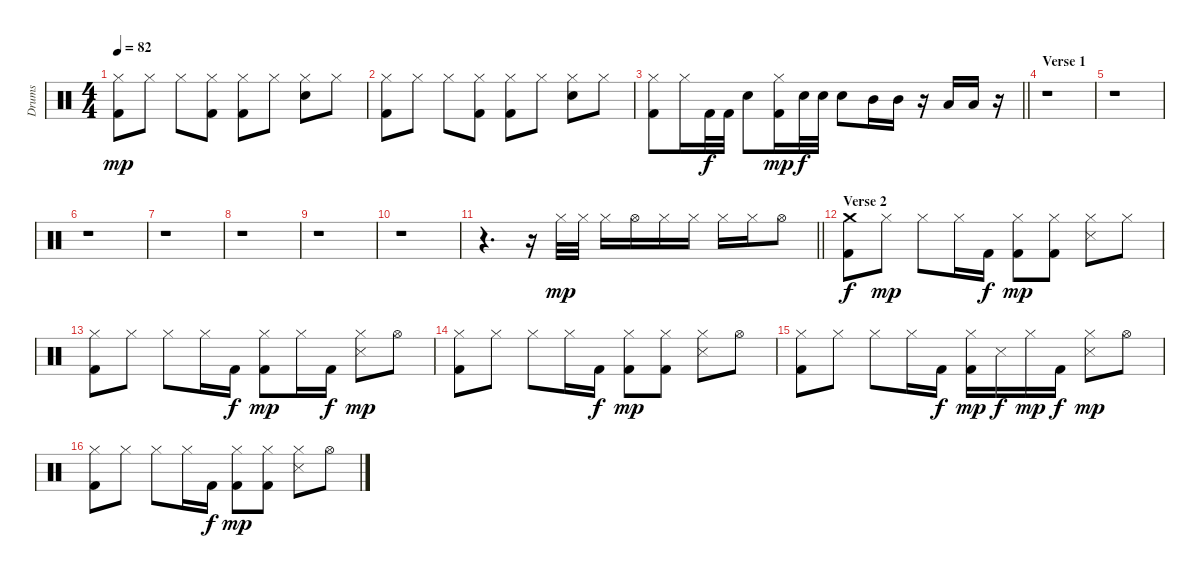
\track ("Drums" "Drums") {instrument percussion}
\staff {score}
\articulation defaults
\ts (4 4)
\tempo 82
\clef neutral
\ks c
("Hi-Hat (closed)" "Kick (hit) 2").8{dy mp} "Hi-Hat (closed)".8 "Hi-Hat (closed)".8 ("Hi-Hat (closed)" "Kick (hit) 2").8 ("Hi-Hat (closed)" "Kick (hit) 2").8 "Hi-Hat (closed)".8 ("Hi-Hat (closed)" "Snare (hit) 2").8 "Hi-Hat (closed)".8 |
("Hi-Hat (closed)" "Kick (hit) 2").8 "Hi-Hat (closed)".8 "Hi-Hat (closed)".8 ("Hi-Hat (closed)" "Kick (hit) 2").8 ("Hi-Hat (closed)" "Kick (hit) 2").8 "Hi-Hat (closed)".8 ("Hi-Hat (closed)" "Snare (hit) 2").8 "Hi-Hat (closed)".8 |
\barLineRight lightlight
("Hi-Hat (closed)" "Kick (hit) 2").8 "Hi-Hat (closed)".16 "Kick (hit) 2".32{dy f} "Kick (hit) 2".32 "Snare (hit) 2".8 ("Hi-Hat (closed)" "Kick (hit) 2").16{dy mp} "Snare (hit) 2".32{dy f} "Snare (hit) 2".32 "Snare (hit) 2".8 "Mid Tom (hit)".16 "Mid Tom (hit)".16 r.16 "Low Tom (hit)".16 "Low Tom (hit)".16 r.16 |
\section ("" "Verse 1")
r.1 |
r.1 |
r.1 |
r.1 |
r.1 |
r.1 |
r.1 |
\barLineRight lightlight
r.4{d} r.16 "Hi-Hat (closed)".32{dy mp} "Hi-Hat (closed)".32 "Hi-Hat (closed)".16 "Hi-Hat (open)".16 "Hi-Hat (closed)".16 "Hi-Hat (closed)".16 "Hi-Hat (closed)".16 "Hi-Hat (closed)".16 "Hi-Hat (open)".8 |
\section ("" "Verse 2")
("Crash medium (hit)" "Kick (hit) 2").8{dy f} "Hi-Hat (closed)".8{dy mp} "Hi-Hat (closed)".8 "Hi-Hat (closed)".16 "Kick (hit) 2".16{dy f} ("Hi-Hat (closed)" "Kick (hit) 2").8{dy mp} ("Hi-Hat (closed)" "Kick (hit) 2").8 ("Hi-Hat (closed)" "Snare (side stick) 3").8 "Hi-Hat (closed)".8 |
("Hi-Hat (closed)" "Kick (hit) 2").8 "Hi-Hat (closed)".8 "Hi-Hat (closed)".8 "Hi-Hat (closed)".16 "Kick (hit) 2".16{dy f} ("Hi-Hat (closed)" "Kick (hit) 2").8{dy mp} "Hi-Hat (closed)".16 "Kick (hit) 2".16{dy f} ("Hi-Hat (closed)" "Snare (side stick) 3").8{dy mp} "Hi-Hat (open)".8 |
("Hi-Hat (closed)" "Kick (hit) 2").8 "Hi-Hat (closed)".8 "Hi-Hat (closed)".8 "Hi-Hat (closed)".16 "Kick (hit) 2".16{dy f} ("Hi-Hat (closed)" "Kick (hit) 2").8{dy mp} ("Hi-Hat (closed)" "Kick (hit) 2").8 ("Hi-Hat (closed)" "Snare (side stick) 3").8 "Hi-Hat (open)".8 |
("Hi-Hat (closed)" "Kick (hit) 2").8 "Hi-Hat (closed)".8 "Hi-Hat (closed)".8 "Hi-Hat (closed)".16 "Kick (hit) 2".16{dy f} ("Hi-Hat (closed)" "Kick (hit) 2").16{dy mp} "Snare (side stick) 3".16{dy f} "Hi-Hat (closed)".16{dy mp} "Kick (hit) 2".16{dy f} ("Hi-Hat (closed)" "Snare (side stick) 3").8{dy mp} "Hi-Hat (open)".8 |
("Hi-Hat (closed)" "Kick (hit) 2").8 "Hi-Hat (closed)".8 "Hi-Hat (closed)".8 "Hi-Hat (closed)".16 "Kick (hit) 2".16{dy f} ("Hi-Hat (closed)" "Kick (hit) 2").8{dy mp} ("Hi-Hat (closed)" "Kick (hit) 2").8 ("Hi-Hat (closed)" "Snare (side stick) 3").8 "Hi-Hat (open)".8
